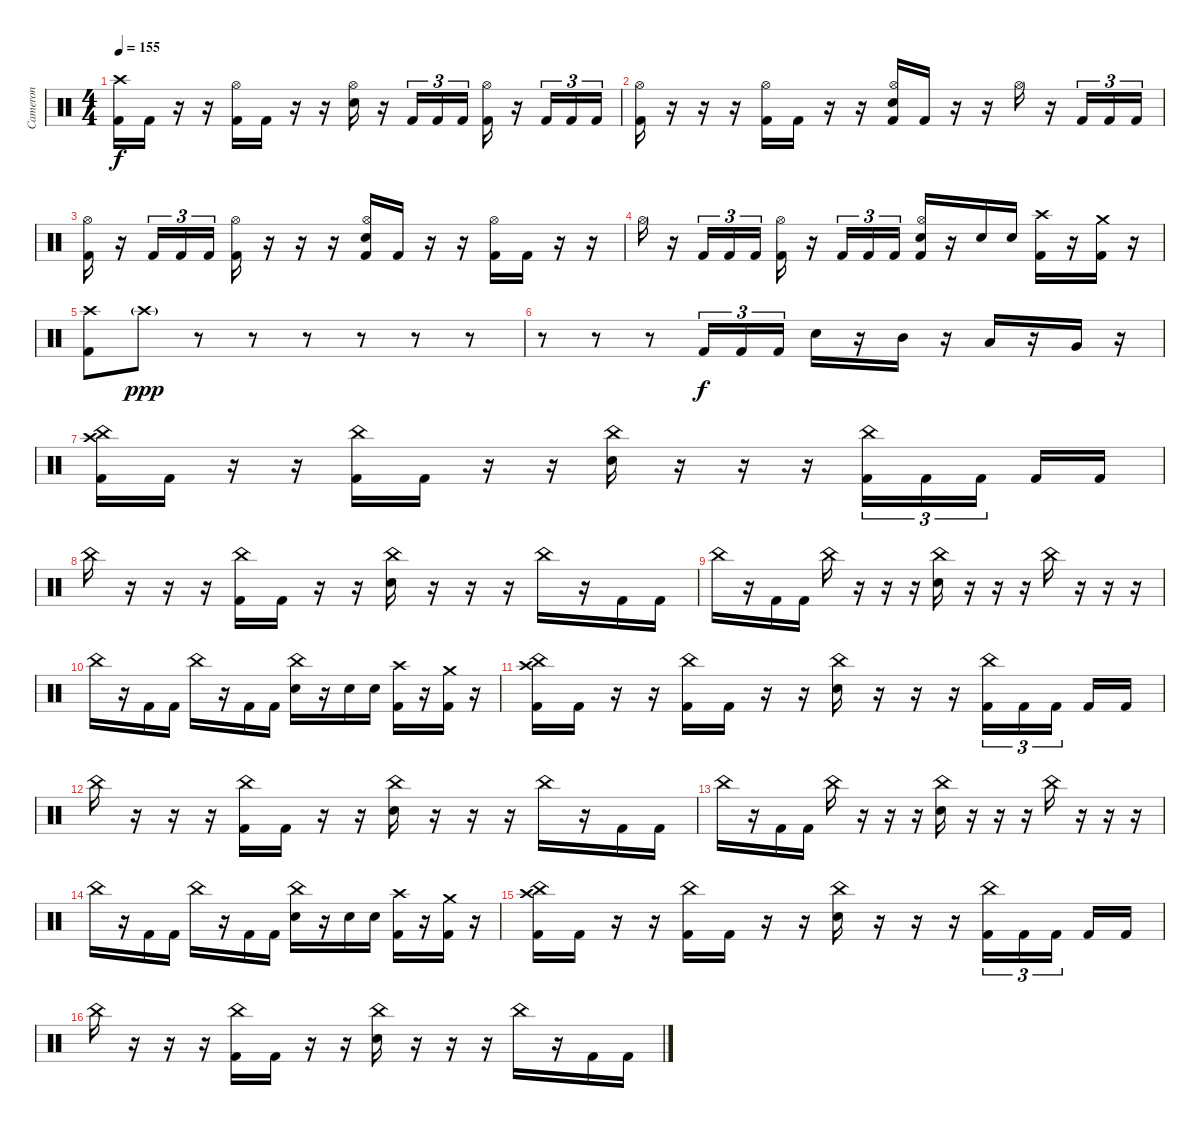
\track ("Cameron" "Cameron") {instrument percussion}
\staff {score}
\articulation defaults
\ts (4 4)
\tempo 155
\clef neutral
\ks c
("Crash high (hit)" "Kick (hit) 2").16{dy f} "Kick (hit) 2".16 r.16 r.16 ("Hi-Hat (open)" "Kick (hit) 2").16 "Kick (hit) 2".16 r.16 r.16 ("Hi-Hat (open)" "Snare (hit) 2").16 r.16 "Kick (hit) 2".16{tu (3 2)} "Kick (hit) 2".16{tu (3 2)} "Kick (hit) 2".16{tu (3 2)} ("Hi-Hat (open)" "Kick (hit) 2").16 r.16 "Kick (hit) 2".16{tu (3 2)} "Kick (hit) 2".16{tu (3 2)} "Kick (hit) 2".16{tu (3 2)} |
("Hi-Hat (open)" "Kick (hit) 2").16 r.16 r.16 r.16 ("Hi-Hat (open)" "Kick (hit) 2").16 "Kick (hit) 2".16 r.16 r.16 ("Hi-Hat (open)" "Snare (hit) 2" "Kick (hit) 2").16 "Kick (hit) 2".16 r.16 r.16 "Hi-Hat (open)".16 r.16 "Kick (hit) 2".16{tu (3 2)} "Kick (hit) 2".16{tu (3 2)} "Kick (hit) 2".16{tu (3 2)} |
("Hi-Hat (open)" "Kick (hit) 2").16 r.16 "Kick (hit) 2".16{tu (3 2)} "Kick (hit) 2".16{tu (3 2)} "Kick (hit) 2".16{tu (3 2)} ("Hi-Hat (open)" "Kick (hit) 2").16 r.16 r.16 r.16 ("Hi-Hat (open)" "Snare (hit) 2" "Kick (hit) 2").16 "Kick (hit) 2".16 r.16 r.16 ("Hi-Hat (open)" "Kick (hit) 2").16 "Kick (hit) 2".16 r.16 r.16 |
"Hi-Hat (open)".16 r.16 "Kick (hit) 2".16{tu (3 2)} "Kick (hit) 2".16{tu (3 2)} "Kick (hit) 2".16{tu (3 2)} ("Hi-Hat (open)" "Kick (hit) 2").16 r.16 "Kick (hit) 2".16{tu (3 2)} "Kick (hit) 2".16{tu (3 2)} "Kick (hit) 2".16{tu (3 2)} ("Hi-Hat (open)" "Snare (hit) 2" "Kick (hit) 2").16 r.16 "Snare (hit) 2".16 "Snare (hit) 2".16 ("Crash high (hit)" "Kick (hit) 2").16 r.16 ("Crash medium (hit)" "Kick (hit) 2").16 r.16 |
("Crash high (hit)" "Kick (hit) 2").8 "Crash high (hit)"{g}.8{dy ppp} r.8 r.8 r.8 r.8 r.8 r.8 |
r.8 r.8 r.8 "Kick (hit) 2".16{tu (3 2) dy f} "Kick (hit) 2".16{tu (3 2)} "Kick (hit) 2".16{tu (3 2)} "Snare (hit) 2".16 r.16 "Mid Tom (hit)".16 r.16 "Low Tom (hit)".16 r.16 "Very Low Tom (hit)".16 r.16 |
("Crash high (hit)" "China (hit)" "Kick (hit) 2").16 "Kick (hit) 2".16 r.16 r.16 ("China (hit)" "Kick (hit) 2").16 "Kick (hit) 2".16 r.16 r.16 ("China (hit)" "Snare (hit) 2").16 r.16 r.16 r.16 ("China (hit)" "Kick (hit) 2").16{tu (3 2)} "Kick (hit) 2".16{tu (3 2)} "Kick (hit) 2".16{tu (3 2) beam splitsecondary} "Kick (hit) 2".16 "Kick (hit) 2".16 |
"China (hit)".16 r.16 r.16 r.16 ("China (hit)" "Kick (hit) 2").16 "Kick (hit) 2".16 r.16 r.16 ("China (hit)" "Snare (hit) 2").16 r.16 r.16 r.16 "China (hit)".16 r.16 "Kick (hit) 2".16 "Kick (hit) 2".16 |
"China (hit)".16 r.16 "Kick (hit) 2".16 "Kick (hit) 2".16 "China (hit)".16 r.16 r.16 r.16 ("China (hit)" "Snare (hit) 2").16 r.16 r.16 r.16 "China (hit)".16 r.16 r.16 r.16 |
"China (hit)".16 r.16 "Kick (hit) 2".16 "Kick (hit) 2".16 "China (hit)".16 r.16 "Kick (hit) 2".16 "Kick (hit) 2".16 ("China (hit)" "Snare (hit) 2").16 r.16 "Snare (hit) 2".16 "Snare (hit) 2".16 ("Crash high (hit)" "Kick (hit) 2").16 r.16 ("Crash medium (hit)" "Kick (hit) 2").16 r.16 |
("Crash high (hit)" "China (hit)" "Kick (hit) 2").16 "Kick (hit) 2".16 r.16 r.16 ("China (hit)" "Kick (hit) 2").16 "Kick (hit) 2".16 r.16 r.16 ("China (hit)" "Snare (hit) 2").16 r.16 r.16 r.16 ("China (hit)" "Kick (hit) 2").16{tu (3 2)} "Kick (hit) 2".16{tu (3 2)} "Kick (hit) 2".16{tu (3 2) beam splitsecondary} "Kick (hit) 2".16 "Kick (hit) 2".16 |
"China (hit)".16 r.16 r.16 r.16 ("China (hit)" "Kick (hit) 2").16 "Kick (hit) 2".16 r.16 r.16 ("China (hit)" "Snare (hit) 2").16 r.16 r.16 r.16 "China (hit)".16 r.16 "Kick (hit) 2".16 "Kick (hit) 2".16 |
"China (hit)".16 r.16 "Kick (hit) 2".16 "Kick (hit) 2".16 "China (hit)".16 r.16 r.16 r.16 ("China (hit)" "Snare (hit) 2").16 r.16 r.16 r.16 "China (hit)".16 r.16 r.16 r.16 |
"China (hit)".16 r.16 "Kick (hit) 2".16 "Kick (hit) 2".16 "China (hit)".16 r.16 "Kick (hit) 2".16 "Kick (hit) 2".16 ("China (hit)" "Snare (hit) 2").16 r.16 "Snare (hit) 2".16 "Snare (hit) 2".16 ("Crash high (hit)" "Kick (hit) 2").16 r.16 ("Crash medium (hit)" "Kick (hit) 2").16 r.16 |
("Crash high (hit)" "China (hit)" "Kick (hit) 2").16 "Kick (hit) 2".16 r.16 r.16 ("China (hit)" "Kick (hit) 2").16 "Kick (hit) 2".16 r.16 r.16 ("China (hit)" "Snare (hit) 2").16 r.16 r.16 r.16 ("China (hit)" "Kick (hit) 2").16{tu (3 2)} "Kick (hit) 2".16{tu (3 2)} "Kick (hit) 2".16{tu (3 2) beam splitsecondary} "Kick (hit) 2".16 "Kick (hit) 2".16 |
"China (hit)".16 r.16 r.16 r.16 ("China (hit)" "Kick (hit) 2").16 "Kick (hit) 2".16 r.16 r.16 ("China (hit)" "Snare (hit) 2").16 r.16 r.16 r.16 "China (hit)".16 r.16 "Kick (hit) 2".16 "Kick (hit) 2".16
